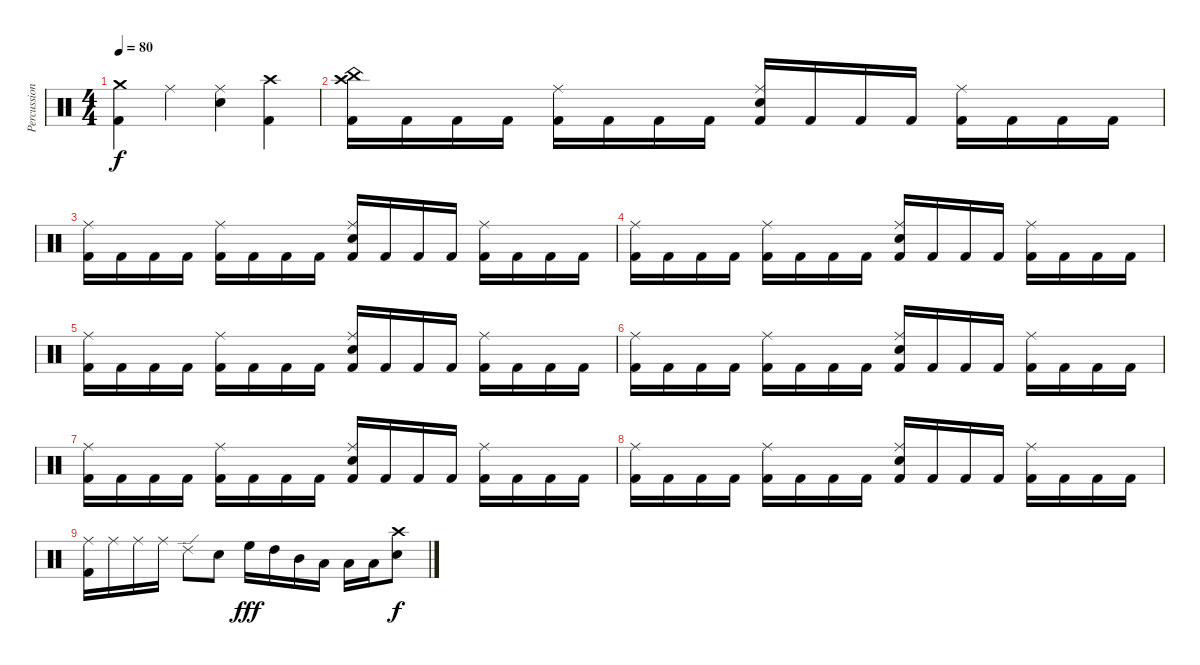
\track ("Percussion" "Percussion") {instrument percussion}
\staff {score}
\articulation defaults
\ts (4 4)
\tempo 80
\clef neutral
\ks c
("Crash medium (hit)" "Kick (hit) 2").4{dy f} "Ride (middle)".4 ("Ride (middle)" "Snare (hit) 2").4 ("Crash high (hit)" "Kick (hit) 2").4 |
("China (hit)" "Crash high (hit)" "Kick (hit) 2").16 "Kick (hit) 2".16 "Kick (hit) 2".16 "Kick (hit) 2".16 ("Ride (middle)" "Kick (hit) 2").16 "Kick (hit) 2".16 "Kick (hit) 2".16 "Kick (hit) 2".16 ("Ride (middle)" "Snare (hit) 2" "Kick (hit) 2").16 "Kick (hit) 2".16 "Kick (hit) 2".16 "Kick (hit) 2".16 ("Ride (middle)" "Kick (hit) 2").16 "Kick (hit) 2".16 "Kick (hit) 2".16 "Kick (hit) 2".16 |
("Ride (middle)" "Kick (hit) 2").16 "Kick (hit) 2".16 "Kick (hit) 2".16 "Kick (hit) 2".16 ("Ride (middle)" "Kick (hit) 2").16 "Kick (hit) 2".16 "Kick (hit) 2".16 "Kick (hit) 2".16 ("Ride (middle)" "Snare (hit) 2" "Kick (hit) 2").16 "Kick (hit) 2".16 "Kick (hit) 2".16 "Kick (hit) 2".16 ("Ride (middle)" "Kick (hit) 2").16 "Kick (hit) 2".16 "Kick (hit) 2".16 "Kick (hit) 2".16 |
("Ride (middle)" "Kick (hit) 2").16 "Kick (hit) 2".16 "Kick (hit) 2".16 "Kick (hit) 2".16 ("Ride (middle)" "Kick (hit) 2").16 "Kick (hit) 2".16 "Kick (hit) 2".16 "Kick (hit) 2".16 ("Ride (middle)" "Snare (hit) 2" "Kick (hit) 2").16 "Kick (hit) 2".16 "Kick (hit) 2".16 "Kick (hit) 2".16 ("Ride (middle)" "Kick (hit) 2").16 "Kick (hit) 2".16 "Kick (hit) 2".16 "Kick (hit) 2".16 |
("Ride (middle)" "Kick (hit) 2").16 "Kick (hit) 2".16 "Kick (hit) 2".16 "Kick (hit) 2".16 ("Ride (middle)" "Kick (hit) 2").16 "Kick (hit) 2".16 "Kick (hit) 2".16 "Kick (hit) 2".16 ("Ride (middle)" "Snare (hit) 2" "Kick (hit) 2").16 "Kick (hit) 2".16 "Kick (hit) 2".16 "Kick (hit) 2".16 ("Ride (middle)" "Kick (hit) 2").16 "Kick (hit) 2".16 "Kick (hit) 2".16 "Kick (hit) 2".16 |
("Ride (middle)" "Kick (hit) 2").16 "Kick (hit) 2".16 "Kick (hit) 2".16 "Kick (hit) 2".16 ("Ride (middle)" "Kick (hit) 2").16 "Kick (hit) 2".16 "Kick (hit) 2".16 "Kick (hit) 2".16 ("Ride (middle)" "Snare (hit) 2" "Kick (hit) 2").16 "Kick (hit) 2".16 "Kick (hit) 2".16 "Kick (hit) 2".16 ("Ride (middle)" "Kick (hit) 2").16 "Kick (hit) 2".16 "Kick (hit) 2".16 "Kick (hit) 2".16 |
("Ride (middle)" "Kick (hit) 2").16 "Kick (hit) 2".16 "Kick (hit) 2".16 "Kick (hit) 2".16 ("Ride (middle)" "Kick (hit) 2").16 "Kick (hit) 2".16 "Kick (hit) 2".16 "Kick (hit) 2".16 ("Ride (middle)" "Snare (hit) 2" "Kick (hit) 2").16 "Kick (hit) 2".16 "Kick (hit) 2".16 "Kick (hit) 2".16 ("Ride (middle)" "Kick (hit) 2").16 "Kick (hit) 2".16 "Kick (hit) 2".16 "Kick (hit) 2".16 |
("Ride (middle)" "Kick (hit) 2").16 "Kick (hit) 2".16 "Kick (hit) 2".16 "Kick (hit) 2".16 ("Ride (middle)" "Kick (hit) 2").16 "Kick (hit) 2".16 "Kick (hit) 2".16 "Kick (hit) 2".16 ("Ride (middle)" "Snare (hit) 2" "Kick (hit) 2").16 "Kick (hit) 2".16 "Kick (hit) 2".16 "Kick (hit) 2".16 ("Ride (middle)" "Kick (hit) 2").16 "Kick (hit) 2".16 "Kick (hit) 2".16 "Kick (hit) 2".16 |
("Ride (middle)" "Kick (hit) 2").16 "Ride (middle)".16 "Ride (middle)".16 "Ride (middle)".16 "Ride (edge) 2".8 "Snare (hit) 2".8 "High Floor Tom (hit)".16{dy fff} "High Tom (hit)".16 "Mid Tom (hit)".16 "Low Tom (hit)".16 "Low Tom (hit)".16 "Low Tom (hit)".16 ("Crash high (hit)" "Snare (hit) 2").8{dy f}
